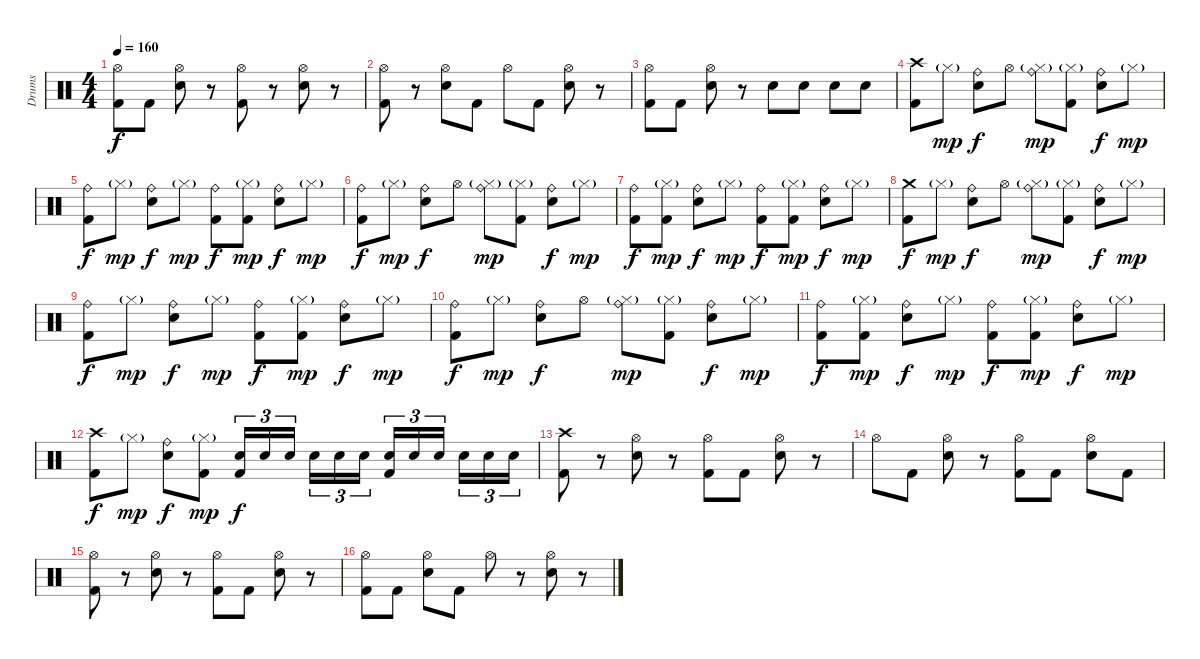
\track ("Drums" "Drums") {instrument percussion}
\staff {score}
\articulation defaults
\ts (4 4)
\tempo 160
\clef neutral
\ks c
("Hi-Hat (open)" "Kick (hit) 2").8{dy f} "Kick (hit) 2".8 ("Hi-Hat (open)" "Snare (hit) 2").8 r.8 ("Hi-Hat (open)" "Kick (hit) 2").8 r.8 ("Hi-Hat (open)" "Snare (hit) 2").8 r.8 |
("Hi-Hat (open)" "Kick (hit) 2").8 r.8 ("Hi-Hat (open)" "Snare (hit) 2").8 "Kick (hit) 2".8 "Hi-Hat (open)".8 "Kick (hit) 2".8 ("Hi-Hat (open)" "Snare (hit) 2").8 r.8 |
("Hi-Hat (open)" "Kick (hit) 2").8 "Kick (hit) 2".8 ("Hi-Hat (open)" "Snare (hit) 2").8 r.8 "Snare (hit) 2".8 "Snare (hit) 2".8 "Snare (hit) 2".8 "Snare (hit) 2".8 |
("Crash high (hit)" "Kick (hit) 2").8 "Hi-Hat (closed)"{g}.8{dy mp} ("Ride (bell)" "Snare (hit) 2").8{dy f} "Hi-Hat (open)".8 ("Ride (bell)" "Hi-Hat (closed)"{g}).8{dy mp} ("Hi-Hat (closed)"{g} "Kick (hit) 2").8 ("Ride (bell)" "Snare (hit) 2").8{dy f} "Hi-Hat (closed)"{g}.8{dy mp} |
("Ride (bell)" "Kick (hit) 2").8{dy f} "Hi-Hat (closed)"{g}.8{dy mp} ("Ride (bell)" "Snare (hit) 2").8{dy f} "Hi-Hat (closed)"{g}.8{dy mp} ("Ride (bell)" "Kick (hit) 2").8{dy f} ("Hi-Hat (closed)"{g} "Kick (hit) 2").8{dy mp} ("Ride (bell)" "Snare (hit) 2").8{dy f} "Hi-Hat (closed)"{g}.8{dy mp} |
("Ride (bell)" "Kick (hit) 2").8{dy f} "Hi-Hat (closed)"{g}.8{dy mp} ("Ride (bell)" "Snare (hit) 2").8{dy f} "Hi-Hat (open)".8 ("Ride (bell)" "Hi-Hat (closed)"{g}).8{dy mp} ("Hi-Hat (closed)"{g} "Kick (hit) 2").8 ("Ride (bell)" "Snare (hit) 2").8{dy f} "Hi-Hat (closed)"{g}.8{dy mp} |
("Ride (bell)" "Kick (hit) 2").8{dy f} ("Hi-Hat (closed)"{g} "Kick (hit) 2").8{dy mp} ("Ride (bell)" "Snare (hit) 2").8{dy f} "Hi-Hat (closed)"{g}.8{dy mp} ("Ride (bell)" "Kick (hit) 2").8{dy f} ("Hi-Hat (closed)"{g} "Kick (hit) 2").8{dy mp} ("Ride (bell)" "Snare (hit) 2").8{dy f} "Hi-Hat (closed)"{g}.8{dy mp} |
("Crash medium (hit)" "Kick (hit) 2").8{dy f} "Hi-Hat (closed)"{g}.8{dy mp} ("Ride (bell)" "Snare (hit) 2").8{dy f} "Hi-Hat (open)".8 ("Ride (bell)" "Hi-Hat (closed)"{g}).8{dy mp} ("Hi-Hat (closed)"{g} "Kick (hit) 2").8 ("Ride (bell)" "Snare (hit) 2").8{dy f} "Hi-Hat (closed)"{g}.8{dy mp} |
("Ride (bell)" "Kick (hit) 2").8{dy f} "Hi-Hat (closed)"{g}.8{dy mp} ("Ride (bell)" "Snare (hit) 2").8{dy f} "Hi-Hat (closed)"{g}.8{dy mp} ("Ride (bell)" "Kick (hit) 2").8{dy f} ("Hi-Hat (closed)"{g} "Kick (hit) 2").8{dy mp} ("Ride (bell)" "Snare (hit) 2").8{dy f} "Hi-Hat (closed)"{g}.8{dy mp} |
("Ride (bell)" "Kick (hit) 2").8{dy f} "Hi-Hat (closed)"{g}.8{dy mp} ("Ride (bell)" "Snare (hit) 2").8{dy f} "Hi-Hat (open)".8 ("Ride (bell)" "Hi-Hat (closed)"{g}).8{dy mp} ("Hi-Hat (closed)"{g} "Kick (hit) 2").8 ("Ride (bell)" "Snare (hit) 2").8{dy f} "Hi-Hat (closed)"{g}.8{dy mp} |
("Ride (bell)" "Kick (hit) 2").8{dy f} ("Hi-Hat (closed)"{g} "Kick (hit) 2").8{dy mp} ("Ride (bell)" "Snare (hit) 2").8{dy f} "Hi-Hat (closed)"{g}.8{dy mp} ("Ride (bell)" "Kick (hit) 2").8{dy f} ("Hi-Hat (closed)"{g} "Kick (hit) 2").8{dy mp} ("Ride (bell)" "Snare (hit) 2").8{dy f} "Hi-Hat (closed)"{g}.8{dy mp} |
("Crash high (hit)" "Kick (hit) 2").8{dy f} "Hi-Hat (closed)"{g}.8{dy mp} ("Ride (bell)" "Snare (hit) 2").8{dy f} ("Hi-Hat (closed)"{g} "Kick (hit) 2").8{dy mp} ("Snare (hit) 2" "Kick (hit) 2").16{tu (3 2) dy f} "Snare (hit) 2".16{tu (3 2)} "Snare (hit) 2".16{tu (3 2)} "Snare (hit) 2".16{tu (3 2)} "Snare (hit) 2".16{tu (3 2)} "Snare (hit) 2".16{tu (3 2)} ("Snare (hit) 2" "Kick (hit) 2").16{tu (3 2)} "Snare (hit) 2".16{tu (3 2)} "Snare (hit) 2".16{tu (3 2)} "Snare (hit) 2".16{tu (3 2)} "Snare (hit) 2".16{tu (3 2)} "Snare (hit) 2".16{tu (3 2)} |
("Crash high (hit)" "Kick (hit) 2").8 r.8 ("Hi-Hat (open)" "Snare (hit) 2").8 r.8 ("Hi-Hat (open)" "Kick (hit) 2").8 "Kick (hit) 2".8 ("Hi-Hat (open)" "Snare (hit) 2").8 r.8 |
"Hi-Hat (open)".8 "Kick (hit) 2".8 ("Hi-Hat (open)" "Snare (hit) 2").8 r.8 ("Hi-Hat (open)" "Kick (hit) 2").8 "Kick (hit) 2".8 ("Hi-Hat (open)" "Snare (hit) 2").8 "Kick (hit) 2".8 |
("Hi-Hat (open)" "Kick (hit) 2").8 r.8 ("Hi-Hat (open)" "Snare (hit) 2").8 r.8 ("Hi-Hat (open)" "Kick (hit) 2").8 "Kick (hit) 2".8 ("Hi-Hat (open)" "Snare (hit) 2").8 r.8 |
("Hi-Hat (open)" "Kick (hit) 2").8 "Kick (hit) 2".8 ("Hi-Hat (open)" "Snare (hit) 2").8 "Kick (hit) 2".8 "Hi-Hat (open)".8 r.8 ("Hi-Hat (open)" "Snare (hit) 2").8 r.8
